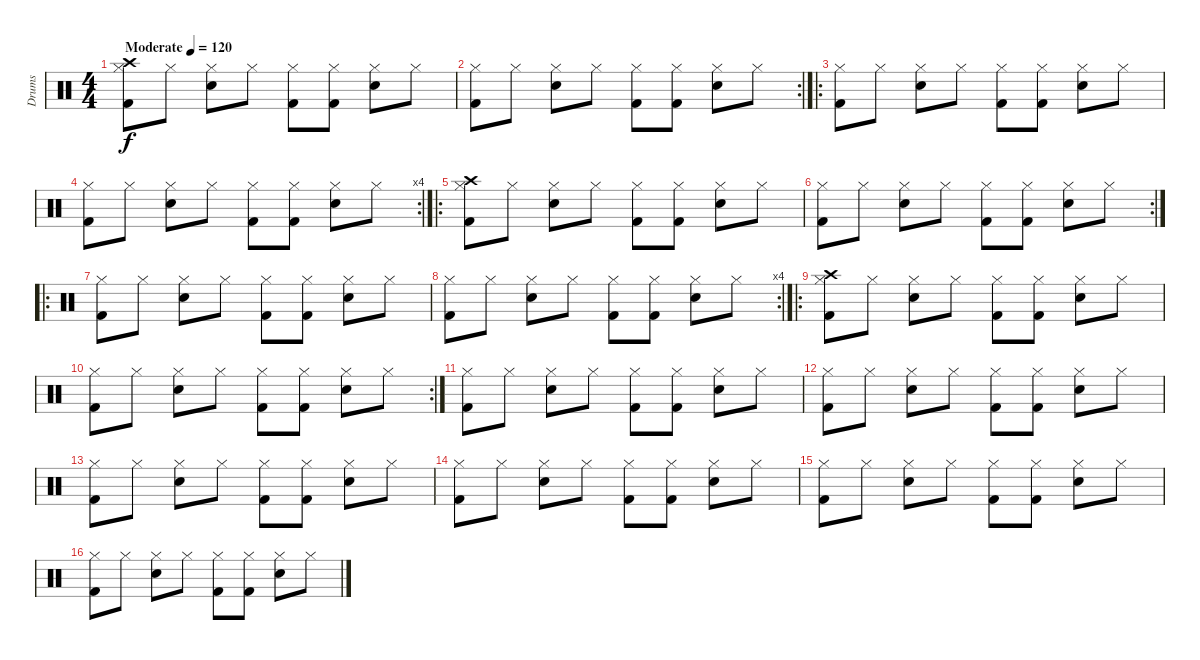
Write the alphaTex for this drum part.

\track ("Drums" "Drums") {instrument percussion}
\staff {score}
\articulation defaults
\ts (4 4)
\tempo (120 "Moderate")
\clef neutral
\ks c
("Hi-Hat (closed)" "Kick (hit) 2" "Crash high (hit)").8{dy f} "Hi-Hat (closed)".8 ("Hi-Hat (closed)" "Snare (hit) 2").8 "Hi-Hat (closed)".8 ("Hi-Hat (closed)" "Kick (hit) 2").8 ("Hi-Hat (closed)" "Kick (hit) 2").8 ("Hi-Hat (closed)" "Snare (hit) 2").8 "Hi-Hat (closed)".8 |
\rc 2
("Hi-Hat (closed)" "Kick (hit) 2").8 "Hi-Hat (closed)".8 ("Hi-Hat (closed)" "Snare (hit) 2").8 "Hi-Hat (closed)".8 ("Hi-Hat (closed)" "Kick (hit) 2").8 ("Hi-Hat (closed)" "Kick (hit) 2").8 ("Hi-Hat (closed)" "Snare (hit) 2").8 "Hi-Hat (closed)".8 |
\ro
("Hi-Hat (closed)" "Kick (hit) 2").8 "Hi-Hat (closed)".8 ("Hi-Hat (closed)" "Snare (hit) 2").8 "Hi-Hat (closed)".8 ("Hi-Hat (closed)" "Kick (hit) 2").8 ("Hi-Hat (closed)" "Kick (hit) 2").8 ("Hi-Hat (closed)" "Snare (hit) 2").8 "Hi-Hat (closed)".8 |
\rc 4
("Hi-Hat (closed)" "Kick (hit) 2").8 "Hi-Hat (closed)".8 ("Hi-Hat (closed)" "Snare (hit) 2").8 "Hi-Hat (closed)".8 ("Hi-Hat (closed)" "Kick (hit) 2").8 ("Hi-Hat (closed)" "Kick (hit) 2").8 ("Hi-Hat (closed)" "Snare (hit) 2").8 "Hi-Hat (closed)".8 |
\ro
("Hi-Hat (closed)" "Kick (hit) 2" "Crash high (hit)").8 "Hi-Hat (closed)".8 ("Hi-Hat (closed)" "Snare (hit) 2").8 "Hi-Hat (closed)".8 ("Hi-Hat (closed)" "Kick (hit) 2").8 ("Hi-Hat (closed)" "Kick (hit) 2").8 ("Hi-Hat (closed)" "Snare (hit) 2").8 "Hi-Hat (closed)".8 |
\rc 2
("Hi-Hat (closed)" "Kick (hit) 2").8 "Hi-Hat (closed)".8 ("Hi-Hat (closed)" "Snare (hit) 2").8 "Hi-Hat (closed)".8 ("Hi-Hat (closed)" "Kick (hit) 2").8 ("Hi-Hat (closed)" "Kick (hit) 2").8 ("Hi-Hat (closed)" "Snare (hit) 2").8 "Hi-Hat (closed)".8 |
\ro
("Hi-Hat (closed)" "Kick (hit) 2").8 "Hi-Hat (closed)".8 ("Hi-Hat (closed)" "Snare (hit) 2").8 "Hi-Hat (closed)".8 ("Hi-Hat (closed)" "Kick (hit) 2").8 ("Hi-Hat (closed)" "Kick (hit) 2").8 ("Hi-Hat (closed)" "Snare (hit) 2").8 "Hi-Hat (closed)".8 |
\rc 4
("Hi-Hat (closed)" "Kick (hit) 2").8 "Hi-Hat (closed)".8 ("Hi-Hat (closed)" "Snare (hit) 2").8 "Hi-Hat (closed)".8 ("Hi-Hat (closed)" "Kick (hit) 2").8 ("Hi-Hat (closed)" "Kick (hit) 2").8 ("Hi-Hat (closed)" "Snare (hit) 2").8 "Hi-Hat (closed)".8 |
\ro
("Hi-Hat (closed)" "Kick (hit) 2" "Crash high (hit)").8 "Hi-Hat (closed)".8 ("Hi-Hat (closed)" "Snare (hit) 2").8 "Hi-Hat (closed)".8 ("Hi-Hat (closed)" "Kick (hit) 2").8 ("Hi-Hat (closed)" "Kick (hit) 2").8 ("Hi-Hat (closed)" "Snare (hit) 2").8 "Hi-Hat (closed)".8 |
\rc 2
("Hi-Hat (closed)" "Kick (hit) 2").8 "Hi-Hat (closed)".8 ("Hi-Hat (closed)" "Snare (hit) 2").8 "Hi-Hat (closed)".8 ("Hi-Hat (closed)" "Kick (hit) 2").8 ("Hi-Hat (closed)" "Kick (hit) 2").8 ("Hi-Hat (closed)" "Snare (hit) 2").8 "Hi-Hat (closed)".8 |
("Hi-Hat (closed)" "Kick (hit) 2").8 "Hi-Hat (closed)".8 ("Hi-Hat (closed)" "Snare (hit) 2").8 "Hi-Hat (closed)".8 ("Hi-Hat (closed)" "Kick (hit) 2").8 ("Hi-Hat (closed)" "Kick (hit) 2").8 ("Hi-Hat (closed)" "Snare (hit) 2").8 "Hi-Hat (closed)".8 |
("Hi-Hat (closed)" "Kick (hit) 2").8 "Hi-Hat (closed)".8 ("Hi-Hat (closed)" "Snare (hit) 2").8 "Hi-Hat (closed)".8 ("Hi-Hat (closed)" "Kick (hit) 2").8 ("Hi-Hat (closed)" "Kick (hit) 2").8 ("Hi-Hat (closed)" "Snare (hit) 2").8 "Hi-Hat (closed)".8 |
("Hi-Hat (closed)" "Kick (hit) 2").8 "Hi-Hat (closed)".8 ("Hi-Hat (closed)" "Snare (hit) 2").8 "Hi-Hat (closed)".8 ("Hi-Hat (closed)" "Kick (hit) 2").8 ("Hi-Hat (closed)" "Kick (hit) 2").8 ("Hi-Hat (closed)" "Snare (hit) 2").8 "Hi-Hat (closed)".8 |
("Hi-Hat (closed)" "Kick (hit) 2").8 "Hi-Hat (closed)".8 ("Hi-Hat (closed)" "Snare (hit) 2").8 "Hi-Hat (closed)".8 ("Hi-Hat (closed)" "Kick (hit) 2").8 ("Hi-Hat (closed)" "Kick (hit) 2").8 ("Hi-Hat (closed)" "Snare (hit) 2").8 "Hi-Hat (closed)".8 |
("Hi-Hat (closed)" "Kick (hit) 2").8 "Hi-Hat (closed)".8 ("Hi-Hat (closed)" "Snare (hit) 2").8 "Hi-Hat (closed)".8 ("Hi-Hat (closed)" "Kick (hit) 2").8 ("Hi-Hat (closed)" "Kick (hit) 2").8 ("Hi-Hat (closed)" "Snare (hit) 2").8 "Hi-Hat (closed)".8 |
("Hi-Hat (closed)" "Kick (hit) 2").8 "Hi-Hat (closed)".8 ("Hi-Hat (closed)" "Snare (hit) 2").8 "Hi-Hat (closed)".8 ("Hi-Hat (closed)" "Kick (hit) 2").8 ("Hi-Hat (closed)" "Kick (hit) 2").8 ("Hi-Hat (closed)" "Snare (hit) 2").8 "Hi-Hat (closed)".8
